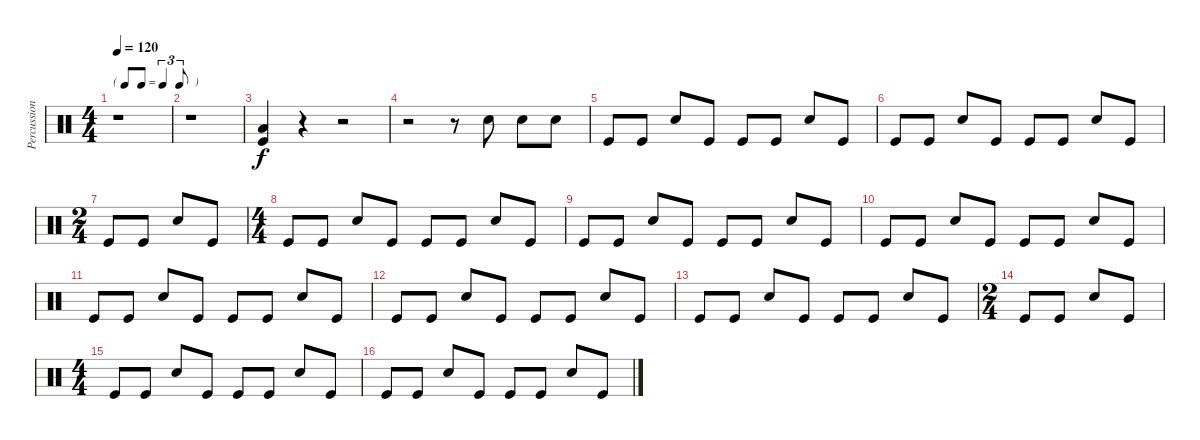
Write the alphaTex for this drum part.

\track ("Percussion" "Percussion") {instrument percussion}
\staff {score}
\articulation defaults
\ts (4 4)
\tf triplet8th
\tempo 120
\clef neutral
\ks c
r.1{dy f} |
r.1 |
("Low Floor Tom (hit)" "Kick (hit)").4 r.4 r.2 |
r.2 r.8 "Snare (hit) 2".8 "Snare (hit) 2".8 "Snare (hit) 2".8 |
"Kick (hit)".8 "Kick (hit)".8 "Snare (hit) 2".8 "Kick (hit)".8 "Kick (hit)".8 "Kick (hit)".8 "Snare (hit) 2".8 "Kick (hit)".8 |
"Kick (hit)".8 "Kick (hit)".8 "Snare (hit) 2".8 "Kick (hit)".8 "Kick (hit)".8 "Kick (hit)".8 "Snare (hit) 2".8 "Kick (hit)".8 |
\ts (2 4)
"Kick (hit)".8 "Kick (hit)".8 "Snare (hit) 2".8 "Kick (hit)".8 |
\ts (4 4)
"Kick (hit)".8 "Kick (hit)".8 "Snare (hit) 2".8 "Kick (hit)".8 "Kick (hit)".8 "Kick (hit)".8 "Snare (hit) 2".8 "Kick (hit)".8 |
"Kick (hit)".8 "Kick (hit)".8 "Snare (hit) 2".8 "Kick (hit)".8 "Kick (hit)".8 "Kick (hit)".8 "Snare (hit) 2".8 "Kick (hit)".8 |
"Kick (hit)".8 "Kick (hit)".8 "Snare (hit) 2".8 "Kick (hit)".8 "Kick (hit)".8 "Kick (hit)".8 "Snare (hit) 2".8 "Kick (hit)".8 |
"Kick (hit)".8 "Kick (hit)".8 "Snare (hit) 2".8 "Kick (hit)".8 "Kick (hit)".8 "Kick (hit)".8 "Snare (hit) 2".8 "Kick (hit)".8 |
"Kick (hit)".8 "Kick (hit)".8 "Snare (hit) 2".8 "Kick (hit)".8 "Kick (hit)".8 "Kick (hit)".8 "Snare (hit) 2".8 "Kick (hit)".8 |
"Kick (hit)".8 "Kick (hit)".8 "Snare (hit) 2".8 "Kick (hit)".8 "Kick (hit)".8 "Kick (hit)".8 "Snare (hit) 2".8 "Kick (hit)".8 |
\ts (2 4)
"Kick (hit)".8 "Kick (hit)".8 "Snare (hit) 2".8 "Kick (hit)".8 |
\ts (4 4)
"Kick (hit)".8 "Kick (hit)".8 "Snare (hit) 2".8 "Kick (hit)".8 "Kick (hit)".8 "Kick (hit)".8 "Snare (hit) 2".8 "Kick (hit)".8 |
"Kick (hit)".8 "Kick (hit)".8 "Snare (hit) 2".8 "Kick (hit)".8 "Kick (hit)".8 "Kick (hit)".8 "Snare (hit) 2".8 "Kick (hit)".8
